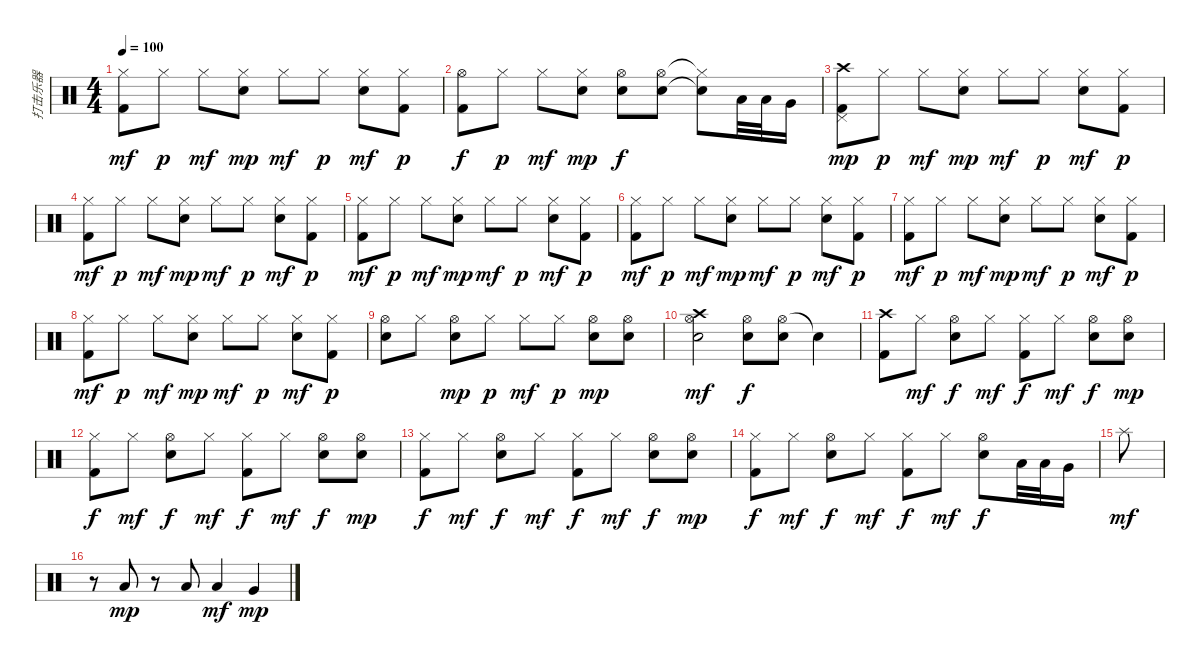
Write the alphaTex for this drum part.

\track ("打击乐器" "打击乐器") {instrument percussion}
\staff {score}
\articulation defaults
\ts (4 4)
\tempo 100
\clef neutral
\ks c
("Hi-Hat (closed)" "Kick (hit) 2").8{dy mf} "Hi-Hat (closed)".8{dy p} "Hi-Hat (closed)".8{dy mf} ("Hi-Hat (closed)" "Electric Snare (hit)").8{dy mp} "Hi-Hat (closed)".8{dy mf} "Hi-Hat (closed)".8{dy p} ("Hi-Hat (closed)" "Electric Snare (hit)").8{dy mf} ("Hi-Hat (closed)" "Kick (hit) 2").8{dy p} |
("Hi-Hat (open)" "Kick (hit) 2").8{dy f} "Hi-Hat (closed)".8{dy p} "Hi-Hat (closed)".8{dy mf} ("Hi-Hat (closed)" "Electric Snare (hit)").8{dy mp} ("Hi-Hat (open)" "Electric Snare (hit)").8{dy f} ("Hi-Hat (open)" "Electric Snare (hit)").8 ("Hi-Hat (closed)"{t} "Snare (hit)"{t}).8 "Low Tom (hit)".32 "Low Tom (hit)".32 "Very Low Tom (hit)".16 |
("Pedal Hi-Hat (hit)" "Crash high (hit)" "Kick (hit) 2").8{dy mp} "Hi-Hat (closed)".8{dy p} "Hi-Hat (closed)".8{dy mf} ("Hi-Hat (closed)" "Electric Snare (hit)").8{dy mp} "Hi-Hat (closed)".8{dy mf} "Hi-Hat (closed)".8{dy p} ("Hi-Hat (closed)" "Electric Snare (hit)").8{dy mf} ("Hi-Hat (closed)" "Kick (hit) 2").8{dy p} |
("Hi-Hat (closed)" "Kick (hit) 2").8{dy mf} "Hi-Hat (closed)".8{dy p} "Hi-Hat (closed)".8{dy mf} ("Hi-Hat (closed)" "Electric Snare (hit)").8{dy mp} "Hi-Hat (closed)".8{dy mf} "Hi-Hat (closed)".8{dy p} ("Hi-Hat (closed)" "Electric Snare (hit)").8{dy mf} ("Hi-Hat (closed)" "Kick (hit) 2").8{dy p} |
("Hi-Hat (closed)" "Kick (hit) 2").8{dy mf} "Hi-Hat (closed)".8{dy p} "Hi-Hat (closed)".8{dy mf} ("Hi-Hat (closed)" "Electric Snare (hit)").8{dy mp} "Hi-Hat (closed)".8{dy mf} "Hi-Hat (closed)".8{dy p} ("Hi-Hat (closed)" "Electric Snare (hit)").8{dy mf} ("Hi-Hat (closed)" "Kick (hit) 2").8{dy p} |
("Hi-Hat (closed)" "Kick (hit) 2").8{dy mf} "Hi-Hat (closed)".8{dy p} "Hi-Hat (closed)".8{dy mf} ("Hi-Hat (closed)" "Electric Snare (hit)").8{dy mp} "Hi-Hat (closed)".8{dy mf} "Hi-Hat (closed)".8{dy p} ("Hi-Hat (closed)" "Electric Snare (hit)").8{dy mf} ("Hi-Hat (closed)" "Kick (hit) 2").8{dy p} |
("Hi-Hat (closed)" "Kick (hit) 2").8{dy mf} "Hi-Hat (closed)".8{dy p} "Hi-Hat (closed)".8{dy mf} ("Hi-Hat (closed)" "Electric Snare (hit)").8{dy mp} "Hi-Hat (closed)".8{dy mf} "Hi-Hat (closed)".8{dy p} ("Hi-Hat (closed)" "Electric Snare (hit)").8{dy mf} ("Hi-Hat (closed)" "Kick (hit) 2").8{dy p} |
("Hi-Hat (closed)" "Kick (hit) 2").8{dy mf} "Hi-Hat (closed)".8{dy p} "Hi-Hat (closed)".8{dy mf} ("Hi-Hat (closed)" "Electric Snare (hit)").8{dy mp} "Hi-Hat (closed)".8{dy mf} "Hi-Hat (closed)".8{dy p} ("Hi-Hat (closed)" "Electric Snare (hit)").8{dy mf} ("Hi-Hat (closed)" "Kick (hit) 2").8{dy p} |
("Hi-Hat (open)" "Electric Snare (hit)").8 "Hi-Hat (closed)".8 ("Hi-Hat (open)" "Electric Snare (hit)").8{dy mp} "Hi-Hat (closed)".8{dy p} "Hi-Hat (closed)".8{dy mf} "Hi-Hat (closed)".8{dy p} ("Hi-Hat (open)" "Electric Snare (hit)").8{dy mp} ("Hi-Hat (open)" "Electric Snare (hit)").8 |
("Crash high (hit)" "Hi-Hat (open)" "Electric Snare (hit)").2{dy mf} ("Hi-Hat (open)" "Electric Snare (hit)").8{dy f} ("Hi-Hat (open)" "Electric Snare (hit)").8 "Snare (hit)"{t}.4 |
("Crash high (hit)" "Kick (hit) 2").8 "Hi-Hat (closed)".8{dy mf} ("Hi-Hat (open)" "Electric Snare (hit)").8{dy f} "Hi-Hat (closed)".8{dy mf} ("Hi-Hat (closed)" "Kick (hit) 2").8{dy f} "Hi-Hat (closed)".8{dy mf} ("Hi-Hat (open)" "Electric Snare (hit)").8{dy f} ("Hi-Hat (open)" "Electric Snare (hit)").8{dy mp} |
("Hi-Hat (closed)" "Kick (hit) 2").8{dy f} "Hi-Hat (closed)".8{dy mf} ("Hi-Hat (open)" "Electric Snare (hit)").8{dy f} "Hi-Hat (closed)".8{dy mf} ("Hi-Hat (closed)" "Kick (hit) 2").8{dy f} "Hi-Hat (closed)".8{dy mf} ("Hi-Hat (open)" "Electric Snare (hit)").8{dy f} ("Hi-Hat (open)" "Electric Snare (hit)").8{dy mp} |
("Hi-Hat (closed)" "Kick (hit) 2").8{dy f} "Hi-Hat (closed)".8{dy mf} ("Hi-Hat (open)" "Electric Snare (hit)").8{dy f} "Hi-Hat (closed)".8{dy mf} ("Hi-Hat (closed)" "Kick (hit) 2").8{dy f} "Hi-Hat (closed)".8{dy mf} ("Hi-Hat (open)" "Electric Snare (hit)").8{dy f} ("Hi-Hat (open)" "Electric Snare (hit)").8{dy mp} |
("Hi-Hat (closed)" "Kick (hit) 2").8{dy f} "Hi-Hat (closed)".8{dy mf} ("Hi-Hat (open)" "Electric Snare (hit)").8{dy f} "Hi-Hat (closed)".8{dy mf} ("Hi-Hat (closed)" "Kick (hit) 2").8{dy f} "Hi-Hat (closed)".8{dy mf} ("Hi-Hat (open)" "Electric Snare (hit)").8{dy f} "Low Tom (hit)".32 "Low Tom (hit)".32 "Very Low Tom (hit)".16 |
"Splash (hit)".8{dy mf} |
r.8 "Low Tom (hit)".8{dy mp} r.8 "Low Tom (hit)".8 "Low Tom (hit)".4{dy mf} "Very Low Tom (hit)".4{dy mp}
